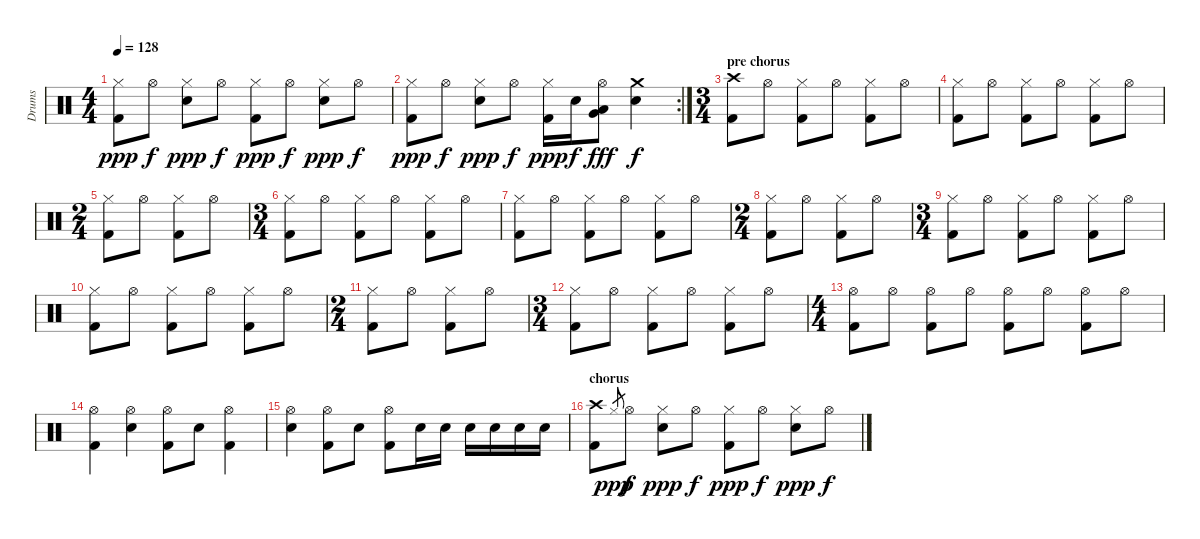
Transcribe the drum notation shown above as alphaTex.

\track ("Drums" "Drums") {instrument percussion}
\staff {score}
\articulation defaults
\ts (4 4)
\tempo 128
\clef neutral
\ks c
("Hi-Hat (closed)" "Kick (hit) 2").8{dy ppp} "Hi-Hat (open)".8{dy f} ("Hi-Hat (closed)" "Snare (hit) 2").8{dy ppp} "Hi-Hat (open)".8{dy f} ("Hi-Hat (closed)" "Kick (hit) 2").8{dy ppp} "Hi-Hat (open)".8{dy f} ("Hi-Hat (closed)" "Snare (hit) 2").8{dy ppp} "Hi-Hat (open)".8{dy f} |
\rc 2
("Hi-Hat (closed)" "Kick (hit) 2").8{dy ppp} "Hi-Hat (open)".8{dy f} ("Hi-Hat (closed)" "Snare (hit) 2").8{dy ppp} "Hi-Hat (open)".8{dy f} ("Hi-Hat (closed)" "Kick (hit) 2").16{dy ppp} "Snare (hit) 2".16{dy f} ("Hi-Hat (open)" "Low Tom (hit)" "Very Low Tom (hit)").8{dy fff} ("Crash medium (hit)" "Snare (hit) 2").4{dy f} |
\ts (3 4)
\section ("" "pre chorus")
("Crash high (hit)" "Kick (hit) 2").8 "Hi-Hat (open)".8 ("Hi-Hat (closed)" "Kick (hit) 2").8 "Hi-Hat (open)".8 ("Hi-Hat (closed)" "Kick (hit) 2").8 "Hi-Hat (open)".8 |
("Hi-Hat (closed)" "Kick (hit) 2").8 "Hi-Hat (open)".8 ("Hi-Hat (closed)" "Kick (hit) 2").8 "Hi-Hat (open)".8 ("Hi-Hat (closed)" "Kick (hit) 2").8 "Hi-Hat (open)".8 |
\ts (2 4)
("Hi-Hat (closed)" "Kick (hit) 2").8 "Hi-Hat (open)".8 ("Hi-Hat (closed)" "Kick (hit) 2").8 "Hi-Hat (open)".8 |
\ts (3 4)
("Hi-Hat (closed)" "Kick (hit) 2").8 "Hi-Hat (open)".8 ("Hi-Hat (closed)" "Kick (hit) 2").8 "Hi-Hat (open)".8 ("Hi-Hat (closed)" "Kick (hit) 2").8 "Hi-Hat (open)".8 |
("Hi-Hat (closed)" "Kick (hit) 2").8 "Hi-Hat (open)".8 ("Hi-Hat (closed)" "Kick (hit) 2").8 "Hi-Hat (open)".8 ("Hi-Hat (closed)" "Kick (hit) 2").8 "Hi-Hat (open)".8 |
\ts (2 4)
("Hi-Hat (closed)" "Kick (hit) 2").8 "Hi-Hat (open)".8 ("Hi-Hat (closed)" "Kick (hit) 2").8 "Hi-Hat (open)".8 |
\ts (3 4)
("Hi-Hat (closed)" "Kick (hit) 2").8 "Hi-Hat (open)".8 ("Hi-Hat (closed)" "Kick (hit) 2").8 "Hi-Hat (open)".8 ("Hi-Hat (closed)" "Kick (hit) 2").8 "Hi-Hat (open)".8 |
("Hi-Hat (closed)" "Kick (hit) 2").8 "Hi-Hat (open)".8 ("Hi-Hat (closed)" "Kick (hit) 2").8 "Hi-Hat (open)".8 ("Hi-Hat (closed)" "Kick (hit) 2").8 "Hi-Hat (open)".8 |
\ts (2 4)
("Hi-Hat (closed)" "Kick (hit) 2").8 "Hi-Hat (open)".8 ("Hi-Hat (closed)" "Kick (hit) 2").8 "Hi-Hat (open)".8 |
\ts (3 4)
("Hi-Hat (closed)" "Kick (hit) 2").8 "Hi-Hat (open)".8 ("Hi-Hat (closed)" "Kick (hit) 2").8 "Hi-Hat (open)".8 ("Hi-Hat (closed)" "Kick (hit) 2").8 "Hi-Hat (open)".8 |
\ts (4 4)
("Hi-Hat (open)" "Kick (hit) 2").8 "Hi-Hat (open)".8 ("Hi-Hat (open)" "Kick (hit) 2").8 "Hi-Hat (open)".8 ("Hi-Hat (open)" "Kick (hit) 2").8 "Hi-Hat (open)".8 ("Hi-Hat (open)" "Kick (hit) 2").8 "Hi-Hat (open)".8 |
("Hi-Hat (open)" "Kick (hit) 2").4 ("Hi-Hat (open)" "Snare (hit) 2").4 ("Hi-Hat (open)" "Kick (hit) 2").8 "Snare (hit) 2".8 ("Hi-Hat (open)" "Kick (hit) 2").4 |
("Hi-Hat (open)" "Snare (hit) 2").4 ("Hi-Hat (open)" "Kick (hit) 2").8 "Snare (hit) 2".8 ("Hi-Hat (open)" "Kick (hit) 2").8 "Snare (hit) 2".16 "Snare (hit) 2".16 "Snare (hit) 2".16 "Snare (hit) 2".16 "Snare (hit) 2".16 "Snare (hit) 2".16 |
\section ("" "chorus")
("Crash high (hit)" "Kick (hit) 2").8 "Hi-Hat (closed)".8{gr dy ppp} "Hi-Hat (open)".8{dy f} ("Hi-Hat (closed)" "Snare (hit) 2").8{dy ppp} "Hi-Hat (open)".8{dy f} ("Hi-Hat (closed)" "Kick (hit) 2").8{dy ppp} "Hi-Hat (open)".8{dy f} ("Hi-Hat (closed)" "Snare (hit) 2").8{dy ppp} "Hi-Hat (open)".8{dy f}
